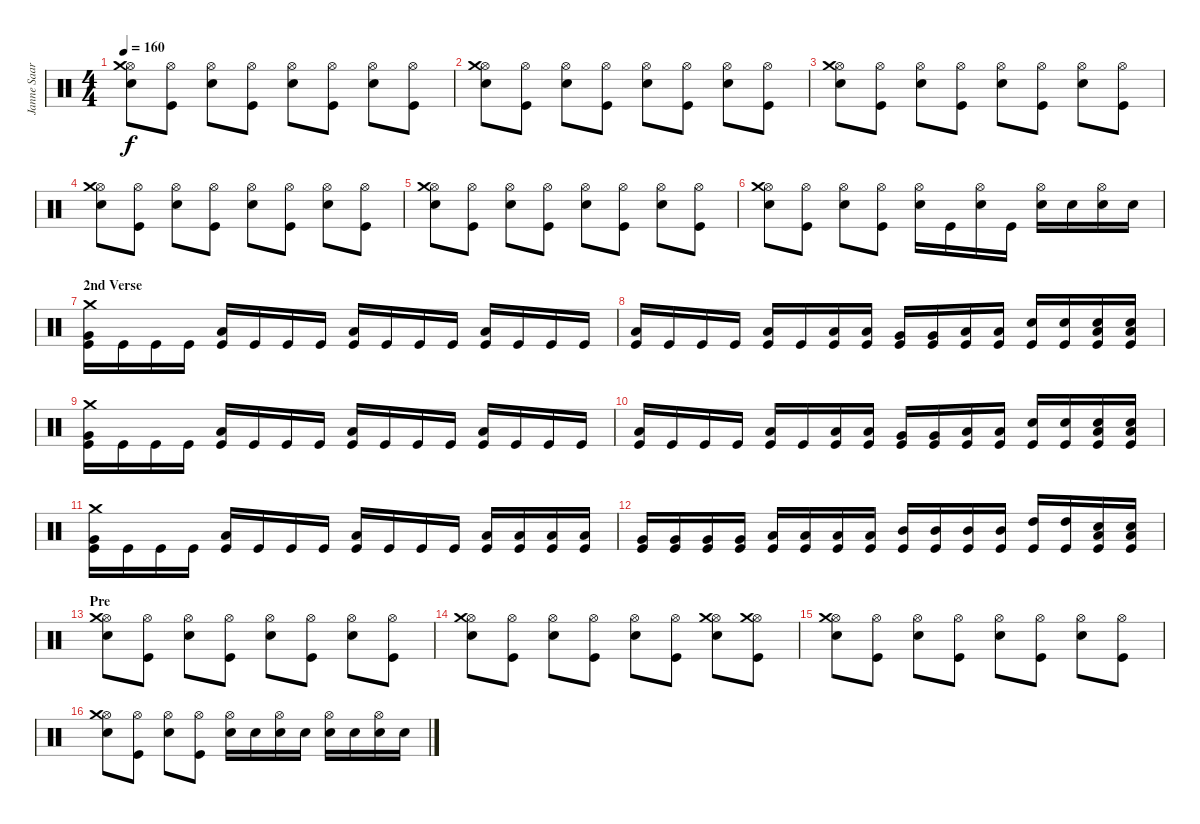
\track ("Janne Saarenpaa" "Janne Saar") {instrument percussion}
\staff {score}
\articulation defaults
\ts (4 4)
\tempo 160
\clef neutral
\ks c
("Hi-Hat (open)" "Snare (hit) 2" "Crash medium (hit)").8{dy f} ("Hi-Hat (open)" "Kick (hit)").8 ("Hi-Hat (open)" "Snare (hit) 2").8 ("Hi-Hat (open)" "Kick (hit)").8 ("Hi-Hat (open)" "Snare (hit) 2").8 ("Hi-Hat (open)" "Kick (hit)").8 ("Hi-Hat (open)" "Snare (hit) 2").8 ("Hi-Hat (open)" "Kick (hit)").8 |
("Hi-Hat (open)" "Snare (hit) 2" "Crash medium (hit)").8 ("Hi-Hat (open)" "Kick (hit)").8 ("Hi-Hat (open)" "Snare (hit) 2").8 ("Hi-Hat (open)" "Kick (hit)").8 ("Hi-Hat (open)" "Snare (hit) 2").8 ("Hi-Hat (open)" "Kick (hit)").8 ("Hi-Hat (open)" "Snare (hit) 2").8 ("Hi-Hat (open)" "Kick (hit)").8 |
("Hi-Hat (open)" "Snare (hit) 2" "Crash medium (hit)").8 ("Hi-Hat (open)" "Kick (hit)").8 ("Hi-Hat (open)" "Snare (hit) 2").8 ("Hi-Hat (open)" "Kick (hit)").8 ("Hi-Hat (open)" "Snare (hit) 2").8 ("Hi-Hat (open)" "Kick (hit)").8 ("Hi-Hat (open)" "Snare (hit) 2").8 ("Hi-Hat (open)" "Kick (hit)").8 |
("Hi-Hat (open)" "Snare (hit) 2" "Crash medium (hit)").8 ("Hi-Hat (open)" "Kick (hit)").8 ("Hi-Hat (open)" "Snare (hit) 2").8 ("Hi-Hat (open)" "Kick (hit)").8 ("Hi-Hat (open)" "Snare (hit) 2").8 ("Hi-Hat (open)" "Kick (hit)").8 ("Hi-Hat (open)" "Snare (hit) 2").8 ("Hi-Hat (open)" "Kick (hit)").8 |
("Hi-Hat (open)" "Snare (hit) 2" "Crash medium (hit)").8 ("Hi-Hat (open)" "Kick (hit)").8 ("Hi-Hat (open)" "Snare (hit) 2").8 ("Hi-Hat (open)" "Kick (hit)").8 ("Hi-Hat (open)" "Snare (hit) 2").8 ("Hi-Hat (open)" "Kick (hit)").8 ("Hi-Hat (open)" "Snare (hit) 2").8 ("Hi-Hat (open)" "Kick (hit)").8 |
("Hi-Hat (open)" "Snare (hit) 2" "Crash medium (hit)").8 ("Hi-Hat (open)" "Kick (hit)").8 ("Hi-Hat (open)" "Snare (hit) 2").8 ("Hi-Hat (open)" "Kick (hit)").8 ("Hi-Hat (open)" "Snare (hit) 2").16 "Kick (hit)".16 ("Hi-Hat (open)" "Snare (hit) 2").16 "Kick (hit)".16 ("Hi-Hat (open)" "Snare (hit) 2").16 "Snare (hit) 2".16 ("Hi-Hat (open)" "Snare (hit) 2").16 "Snare (hit) 2".16 |
\section ("" "2nd Verse")
("Kick (hit)" "Very Low Tom (hit)" "Crash medium (hit)").16 "Kick (hit)".16 "Kick (hit)".16 "Kick (hit)".16 ("Kick (hit)" "Low Tom (hit)").16 "Kick (hit)".16 "Kick (hit)".16 "Kick (hit)".16 ("Kick (hit)" "Low Tom (hit)").16 "Kick (hit)".16 "Kick (hit)".16 "Kick (hit)".16 ("Kick (hit)" "Low Tom (hit)").16 "Kick (hit)".16 "Kick (hit)".16 "Kick (hit)".16 |
("Kick (hit)" "Low Tom (hit)").16 "Kick (hit)".16 "Kick (hit)".16 "Kick (hit)".16 ("Kick (hit)" "Low Tom (hit)").16 "Kick (hit)".16 ("Kick (hit)" "Low Tom (hit)").16 ("Kick (hit)" "Low Tom (hit)").16 ("Kick (hit)" "Very Low Tom (hit)").16 ("Kick (hit)" "Very Low Tom (hit)").16 ("Kick (hit)" "Low Tom (hit)").16 ("Kick (hit)" "Low Tom (hit)").16 ("Kick (hit)" "Snare (hit) 2").16 ("Kick (hit)" "Snare (hit) 2").16 ("Kick (hit)" "Snare (hit) 2" "Low Tom (hit)").16 ("Kick (hit)" "Snare (hit) 2" "Low Tom (hit)").16 |
("Kick (hit)" "Very Low Tom (hit)" "Crash medium (hit)").16 "Kick (hit)".16 "Kick (hit)".16 "Kick (hit)".16 ("Kick (hit)" "Low Tom (hit)").16 "Kick (hit)".16 "Kick (hit)".16 "Kick (hit)".16 ("Kick (hit)" "Low Tom (hit)").16 "Kick (hit)".16 "Kick (hit)".16 "Kick (hit)".16 ("Kick (hit)" "Low Tom (hit)").16 "Kick (hit)".16 "Kick (hit)".16 "Kick (hit)".16 |
("Kick (hit)" "Low Tom (hit)").16 "Kick (hit)".16 "Kick (hit)".16 "Kick (hit)".16 ("Kick (hit)" "Low Tom (hit)").16 "Kick (hit)".16 ("Kick (hit)" "Low Tom (hit)").16 ("Kick (hit)" "Low Tom (hit)").16 ("Kick (hit)" "Very Low Tom (hit)").16 ("Kick (hit)" "Very Low Tom (hit)").16 ("Kick (hit)" "Low Tom (hit)").16 ("Kick (hit)" "Low Tom (hit)").16 ("Kick (hit)" "Snare (hit) 2").16 ("Kick (hit)" "Snare (hit) 2").16 ("Kick (hit)" "Snare (hit) 2" "Low Tom (hit)").16 ("Kick (hit)" "Snare (hit) 2" "Low Tom (hit)").16 |
("Kick (hit)" "Very Low Tom (hit)" "Crash medium (hit)").16 "Kick (hit)".16 "Kick (hit)".16 "Kick (hit)".16 ("Kick (hit)" "Low Tom (hit)").16 "Kick (hit)".16 "Kick (hit)".16 "Kick (hit)".16 ("Kick (hit)" "Low Tom (hit)").16 "Kick (hit)".16 "Kick (hit)".16 "Kick (hit)".16 ("Kick (hit)" "Low Floor Tom (hit)").16 ("Kick (hit)" "Low Floor Tom (hit)").16 ("Kick (hit)" "Low Floor Tom (hit)").16 ("Kick (hit)" "Low Floor Tom (hit)").16 |
("Kick (hit)" "Very Low Tom (hit)").16 ("Kick (hit)" "Very Low Tom (hit)").16 ("Kick (hit)" "Very Low Tom (hit)").16 ("Kick (hit)" "Very Low Tom (hit)").16 ("Kick (hit)" "Low Tom (hit)").16 ("Kick (hit)" "Low Tom (hit)").16 ("Kick (hit)" "Low Tom (hit)").16 ("Kick (hit)" "Low Tom (hit)").16 ("Kick (hit)" "Mid Tom (hit)").16 ("Kick (hit)" "Mid Tom (hit)").16 ("Kick (hit)" "Mid Tom (hit)").16 ("Kick (hit)" "Mid Tom (hit)").16 ("Kick (hit)" "High Tom (hit)").16 ("Kick (hit)" "High Tom (hit)").16 ("Kick (hit)" "Snare (hit) 2" "Low Tom (hit)").16 ("Kick (hit)" "Snare (hit) 2" "Low Tom (hit)").16 |
\section ("" "Pre")
("Hi-Hat (open)" "Snare (hit) 2" "Crash medium (hit)").8 ("Hi-Hat (open)" "Kick (hit)").8 ("Hi-Hat (open)" "Snare (hit) 2").8 ("Hi-Hat (open)" "Kick (hit)").8 ("Hi-Hat (open)" "Snare (hit) 2").8 ("Hi-Hat (open)" "Kick (hit)").8 ("Hi-Hat (open)" "Snare (hit) 2").8 ("Hi-Hat (open)" "Kick (hit)").8 |
("Hi-Hat (open)" "Snare (hit) 2" "Crash medium (hit)").8 ("Hi-Hat (open)" "Kick (hit)").8 ("Hi-Hat (open)" "Snare (hit) 2").8 ("Hi-Hat (open)" "Kick (hit)").8 ("Hi-Hat (open)" "Snare (hit) 2").8 ("Hi-Hat (open)" "Kick (hit)").8 ("Hi-Hat (open)" "Snare (hit) 2" "Crash medium (hit)").8 ("Hi-Hat (open)" "Kick (hit)" "Crash medium (hit)").8 |
("Hi-Hat (open)" "Snare (hit) 2" "Crash medium (hit)").8 ("Hi-Hat (open)" "Kick (hit)").8 ("Hi-Hat (open)" "Snare (hit) 2").8 ("Hi-Hat (open)" "Kick (hit)").8 ("Hi-Hat (open)" "Snare (hit) 2").8 ("Hi-Hat (open)" "Kick (hit)").8 ("Hi-Hat (open)" "Snare (hit) 2").8 ("Hi-Hat (open)" "Kick (hit)").8 |
("Hi-Hat (open)" "Snare (hit) 2" "Crash medium (hit)").8 ("Hi-Hat (open)" "Kick (hit)").8 ("Hi-Hat (open)" "Snare (hit) 2").8 ("Hi-Hat (open)" "Kick (hit)").8 ("Hi-Hat (open)" "Snare (hit) 2").16 "Snare (hit) 2".16 ("Hi-Hat (open)" "Snare (hit) 2").16 "Snare (hit) 2".16 ("Hi-Hat (open)" "Snare (hit) 2").16 "Snare (hit) 2".16 ("Hi-Hat (open)" "Snare (hit) 2").16 "Snare (hit) 2".16
